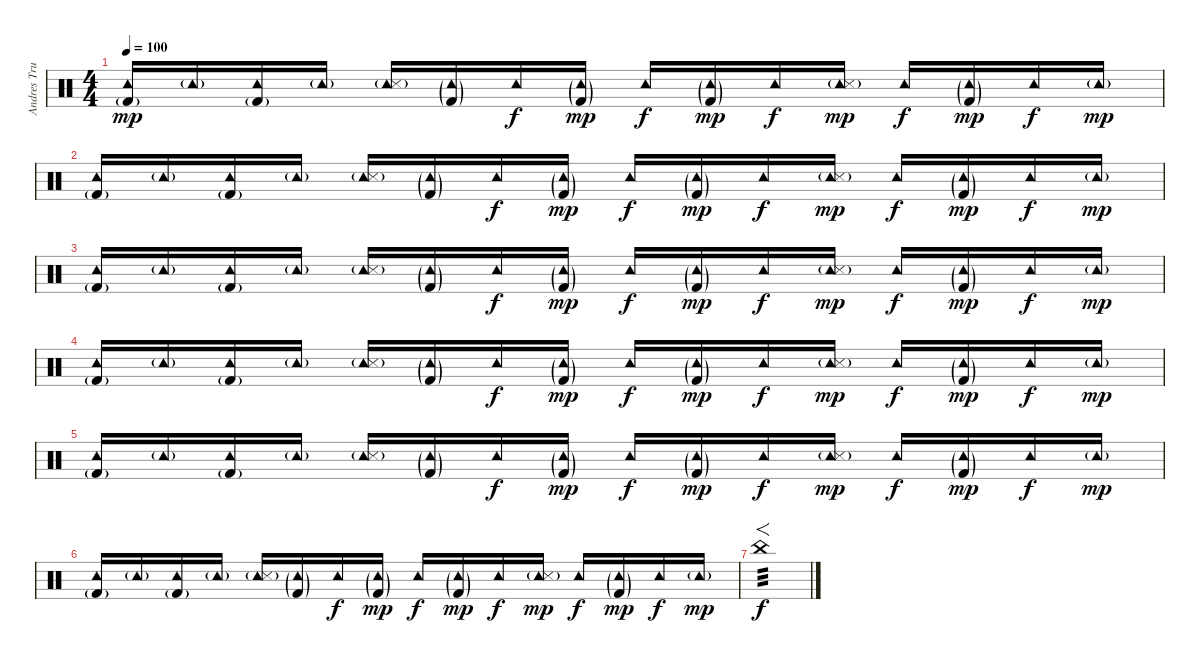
\track ("Andres Trujillo" "Andres Tru") {instrument percussion}
\staff {score}
\articulation defaults
\ts (4 4)
\tempo 100
\clef neutral
\ks c
("Tambourine (hit)" "Kick (hit) 2"{g}).16{dy mp} "Tambourine (hit)"{g}.16 ("Tambourine (hit)" "Kick (hit) 2"{g}).16 "Tambourine (hit)"{g}.16 ("Tambourine (hit)" "Snare (side stick) 3"{g}).16 ("Tambourine (hit)"{g} "Kick (hit) 2"{g}).16 "Tambourine (hit)".16{dy f} ("Tambourine (hit)"{g} "Kick (hit) 2"{g}).16{dy mp} "Tambourine (hit)".16{dy f} ("Tambourine (hit)"{g} "Kick (hit) 2"{g}).16{dy mp} "Tambourine (hit)".16{dy f} ("Tambourine (hit)"{g} "Snare (side stick) 3"{g}).16{dy mp} "Tambourine (hit)".16{dy f} ("Tambourine (hit)"{g} "Kick (hit) 2"{g}).16{dy mp} "Tambourine (hit)".16{dy f} "Tambourine (hit)"{g}.16{dy mp} |
("Tambourine (hit)" "Kick (hit) 2"{g}).16 "Tambourine (hit)"{g}.16 ("Tambourine (hit)" "Kick (hit) 2"{g}).16 "Tambourine (hit)"{g}.16 ("Tambourine (hit)" "Snare (side stick) 3"{g}).16 ("Tambourine (hit)"{g} "Kick (hit) 2"{g}).16 "Tambourine (hit)".16{dy f} ("Tambourine (hit)"{g} "Kick (hit) 2"{g}).16{dy mp} "Tambourine (hit)".16{dy f} ("Tambourine (hit)"{g} "Kick (hit) 2"{g}).16{dy mp} "Tambourine (hit)".16{dy f} ("Tambourine (hit)"{g} "Snare (side stick) 3"{g}).16{dy mp} "Tambourine (hit)".16{dy f} ("Tambourine (hit)"{g} "Kick (hit) 2"{g}).16{dy mp} "Tambourine (hit)".16{dy f} "Tambourine (hit)"{g}.16{dy mp} |
("Tambourine (hit)" "Kick (hit) 2"{g}).16 "Tambourine (hit)"{g}.16 ("Tambourine (hit)" "Kick (hit) 2"{g}).16 "Tambourine (hit)"{g}.16 ("Tambourine (hit)" "Snare (side stick) 3"{g}).16 ("Tambourine (hit)"{g} "Kick (hit) 2"{g}).16 "Tambourine (hit)".16{dy f} ("Tambourine (hit)"{g} "Kick (hit) 2"{g}).16{dy mp} "Tambourine (hit)".16{dy f} ("Tambourine (hit)"{g} "Kick (hit) 2"{g}).16{dy mp} "Tambourine (hit)".16{dy f} ("Tambourine (hit)"{g} "Snare (side stick) 3"{g}).16{dy mp} "Tambourine (hit)".16{dy f} ("Tambourine (hit)"{g} "Kick (hit) 2"{g}).16{dy mp} "Tambourine (hit)".16{dy f} "Tambourine (hit)"{g}.16{dy mp} |
("Tambourine (hit)" "Kick (hit) 2"{g}).16 "Tambourine (hit)"{g}.16 ("Tambourine (hit)" "Kick (hit) 2"{g}).16 "Tambourine (hit)"{g}.16 ("Tambourine (hit)" "Snare (side stick) 3"{g}).16 ("Tambourine (hit)"{g} "Kick (hit) 2"{g}).16 "Tambourine (hit)".16{dy f} ("Tambourine (hit)"{g} "Kick (hit) 2"{g}).16{dy mp} "Tambourine (hit)".16{dy f} ("Tambourine (hit)"{g} "Kick (hit) 2"{g}).16{dy mp} "Tambourine (hit)".16{dy f} ("Tambourine (hit)"{g} "Snare (side stick) 3"{g}).16{dy mp} "Tambourine (hit)".16{dy f} ("Tambourine (hit)"{g} "Kick (hit) 2"{g}).16{dy mp} "Tambourine (hit)".16{dy f} "Tambourine (hit)"{g}.16{dy mp} |
("Tambourine (hit)" "Kick (hit) 2"{g}).16 "Tambourine (hit)"{g}.16 ("Tambourine (hit)" "Kick (hit) 2"{g}).16 "Tambourine (hit)"{g}.16 ("Tambourine (hit)" "Snare (side stick) 3"{g}).16 ("Tambourine (hit)"{g} "Kick (hit) 2"{g}).16 "Tambourine (hit)".16{dy f} ("Tambourine (hit)"{g} "Kick (hit) 2"{g}).16{dy mp} "Tambourine (hit)".16{dy f} ("Tambourine (hit)"{g} "Kick (hit) 2"{g}).16{dy mp} "Tambourine (hit)".16{dy f} ("Tambourine (hit)"{g} "Snare (side stick) 3"{g}).16{dy mp} "Tambourine (hit)".16{dy f} ("Tambourine (hit)"{g} "Kick (hit) 2"{g}).16{dy mp} "Tambourine (hit)".16{dy f} "Tambourine (hit)"{g}.16{dy mp} |
("Tambourine (hit)" "Kick (hit) 2"{g}).16 "Tambourine (hit)"{g}.16 ("Tambourine (hit)" "Kick (hit) 2"{g}).16 "Tambourine (hit)"{g}.16 ("Tambourine (hit)" "Snare (side stick) 3"{g}).16 ("Tambourine (hit)"{g} "Kick (hit) 2"{g}).16 "Tambourine (hit)".16{dy f} ("Tambourine (hit)"{g} "Kick (hit) 2"{g}).16{dy mp} "Tambourine (hit)".16{dy f} ("Tambourine (hit)"{g} "Kick (hit) 2"{g}).16{dy mp} "Tambourine (hit)".16{dy f} ("Tambourine (hit)"{g} "Snare (side stick) 3"{g}).16{dy mp} "Tambourine (hit)".16{dy f} ("Tambourine (hit)"{g} "Kick (hit) 2"{g}).16{dy mp} "Tambourine (hit)".16{dy f} "Tambourine (hit)"{g}.16{dy mp} |
"China (hit)".1{f tp 3 dy f}
